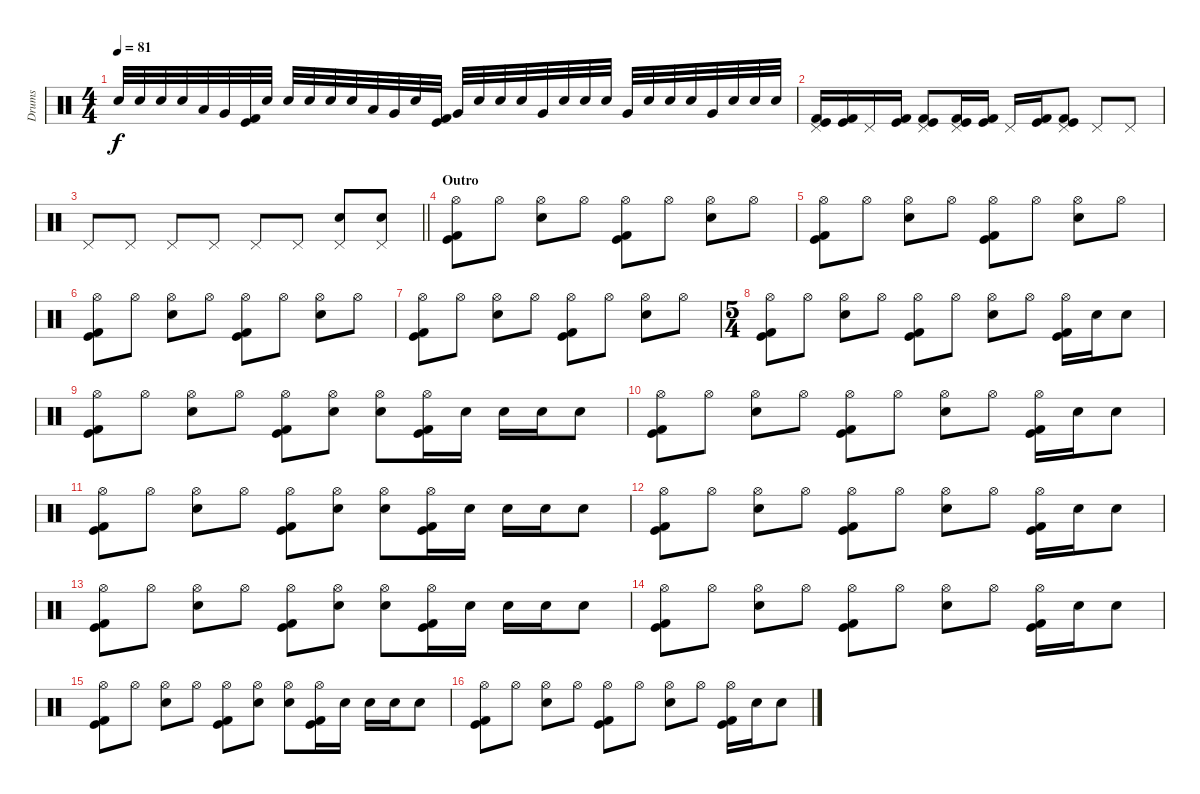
\track ("Drums" "Drums") {instrument percussion}
\staff {score}
\articulation defaults
\ts (4 4)
\tempo 81
\clef neutral
\ks c "Electric Snare (hit)".32{dy f} "Electric Snare (hit)".32 "Electric Snare (hit)".32 "Electric Snare (hit)".32 "Low Tom (hit)".32 "Very Low Tom (hit)".32
("Kick (hit)" "Kick (hit) 2").32 "Electric Snare (hit)".32 "Electric Snare (hit)".32 "Electric Snare (hit)".32 "Electric Snare (hit)".32 "Electric Snare (hit)".32 "Low Tom (hit)".32 "Very Low Tom (hit)".32 "Electric Snare (hit)".32 ("Kick (hit)" "Kick (hit) 2").32 "Very Low Tom (hit)".32 "Electric Snare (hit)".32 "Electric Snare (hit)".32 "Electric Snare (hit)".32 "Very Low Tom (hit)".32 "Electric Snare (hit)".32 "Electric Snare (hit)".32 "Electric Snare (hit)".32 "Very Low Tom (hit)".32 "Electric Snare (hit)".32 "Electric Snare (hit)".32 "Electric Snare (hit)".32 "Very Low Tom (hit)".32 "Electric Snare (hit)".32 "Electric Snare (hit)".32 "Electric Snare (hit)".32 |
("Pedal Hi-Hat (hit)" "Kick (hit)" "Kick (hit) 2").16 ("Kick (hit)" "Kick (hit) 2").16 "Pedal Hi-Hat (hit)".16 ("Kick (hit)" "Kick (hit) 2").16 ("Pedal Hi-Hat (hit)" "Kick (hit)" "Kick (hit) 2").8 ("Pedal Hi-Hat (hit)" "Kick (hit)" "Kick (hit) 2").16 ("Kick (hit)" "Kick (hit) 2").16 "Pedal Hi-Hat (hit)".16 ("Kick (hit)" "Kick (hit) 2").16 ("Pedal Hi-Hat (hit)" "Kick (hit)" "Kick (hit) 2").8 "Pedal Hi-Hat (hit)".8 "Pedal Hi-Hat (hit)".8 |
\barLineRight lightlight "Pedal Hi-Hat (hit)".8 "Pedal Hi-Hat (hit)".8 "Pedal Hi-Hat (hit)".8 "Pedal Hi-Hat (hit)".8 "Pedal Hi-Hat (hit)".8 "Pedal Hi-Hat (hit)".8
("Pedal Hi-Hat (hit)" "Electric Snare (hit)").8 ("Pedal Hi-Hat (hit)" "Electric Snare (hit)").8 |
\section ("" "Outro")
("Hi-Hat (open)" "Kick (hit)" "Kick (hit) 2").8 "Hi-Hat (open)".8 ("Hi-Hat (open)" "Electric Snare (hit)").8 "Hi-Hat (open)".8 ("Hi-Hat (open)" "Kick (hit)" "Kick (hit) 2").8 "Hi-Hat (open)".8 ("Hi-Hat (open)" "Electric Snare (hit)").8 "Hi-Hat (open)".8 |
("Hi-Hat (open)" "Kick (hit)" "Kick (hit) 2").8 "Hi-Hat (open)".8 ("Hi-Hat (open)" "Electric Snare (hit)").8 "Hi-Hat (open)".8 ("Hi-Hat (open)" "Kick (hit)" "Kick (hit) 2").8 "Hi-Hat (open)".8 ("Hi-Hat (open)" "Electric Snare (hit)").8 "Hi-Hat (open)".8 |
("Hi-Hat (open)" "Kick (hit)" "Kick (hit) 2").8 "Hi-Hat (open)".8 ("Hi-Hat (open)" "Electric Snare (hit)").8 "Hi-Hat (open)".8 ("Hi-Hat (open)" "Kick (hit)" "Kick (hit) 2").8 "Hi-Hat (open)".8 ("Hi-Hat (open)" "Electric Snare (hit)").8 "Hi-Hat (open)".8 |
("Hi-Hat (open)" "Kick (hit)" "Kick (hit) 2").8 "Hi-Hat (open)".8 ("Hi-Hat (open)" "Electric Snare (hit)").8 "Hi-Hat (open)".8 ("Hi-Hat (open)" "Kick (hit)" "Kick (hit) 2").8 "Hi-Hat (open)".8 ("Hi-Hat (open)" "Electric Snare (hit)").8 "Hi-Hat (open)".8 |
\ts (5 4)
("Hi-Hat (open)" "Kick (hit)" "Kick (hit) 2").8 "Hi-Hat (open)".8 ("Hi-Hat (open)" "Electric Snare (hit)").8 "Hi-Hat (open)".8 ("Hi-Hat (open)" "Kick (hit)" "Kick (hit) 2").8 "Hi-Hat (open)".8 ("Hi-Hat (open)" "Electric Snare (hit)").8 "Hi-Hat (open)".8 ("Hi-Hat (open)" "Kick (hit)" "Kick (hit) 2").16 "Electric Snare (hit)".16 "Electric Snare (hit)".8 |
("Hi-Hat (open)" "Kick (hit)" "Kick (hit) 2").8 "Hi-Hat (open)".8 ("Hi-Hat (open)" "Electric Snare (hit)").8 "Hi-Hat (open)".8 ("Hi-Hat (open)" "Kick (hit)" "Kick (hit) 2").8 ("Hi-Hat (open)" "Electric Snare (hit)").8 ("Hi-Hat (open)" "Electric Snare (hit)").8 ("Hi-Hat (open)" "Kick (hit)" "Kick (hit) 2").16 "Electric Snare (hit)".16 "Electric Snare (hit)".16 "Electric Snare (hit)".16 "Electric Snare (hit)".8 |
("Hi-Hat (open)" "Kick (hit)" "Kick (hit) 2").8 "Hi-Hat (open)".8 ("Hi-Hat (open)" "Electric Snare (hit)").8 "Hi-Hat (open)".8 ("Hi-Hat (open)" "Kick (hit)" "Kick (hit) 2").8 "Hi-Hat (open)".8 ("Hi-Hat (open)" "Electric Snare (hit)").8 "Hi-Hat (open)".8 ("Hi-Hat (open)" "Kick (hit)" "Kick (hit) 2").16 "Electric Snare (hit)".16 "Electric Snare (hit)".8 |
("Hi-Hat (open)" "Kick (hit)" "Kick (hit) 2").8 "Hi-Hat (open)".8 ("Hi-Hat (open)" "Electric Snare (hit)").8 "Hi-Hat (open)".8 ("Hi-Hat (open)" "Kick (hit)" "Kick (hit) 2").8 ("Hi-Hat (open)" "Electric Snare (hit)").8 ("Hi-Hat (open)" "Electric Snare (hit)").8 ("Hi-Hat (open)" "Kick (hit)" "Kick (hit) 2").16 "Electric Snare (hit)".16 "Electric Snare (hit)".16 "Electric Snare (hit)".16 "Electric Snare (hit)".8 |
("Hi-Hat (open)" "Kick (hit)" "Kick (hit) 2").8 "Hi-Hat (open)".8 ("Hi-Hat (open)" "Electric Snare (hit)").8 "Hi-Hat (open)".8 ("Hi-Hat (open)" "Kick (hit)" "Kick (hit) 2").8 "Hi-Hat (open)".8 ("Hi-Hat (open)" "Electric Snare (hit)").8 "Hi-Hat (open)".8 ("Hi-Hat (open)" "Kick (hit)" "Kick (hit) 2").16 "Electric Snare (hit)".16 "Electric Snare (hit)".8 |
("Hi-Hat (open)" "Kick (hit)" "Kick (hit) 2").8 "Hi-Hat (open)".8 ("Hi-Hat (open)" "Electric Snare (hit)").8 "Hi-Hat (open)".8 ("Hi-Hat (open)" "Kick (hit)" "Kick (hit) 2").8 ("Hi-Hat (open)" "Electric Snare (hit)").8 ("Hi-Hat (open)" "Electric Snare (hit)").8 ("Hi-Hat (open)" "Kick (hit)" "Kick (hit) 2").16 "Electric Snare (hit)".16 "Electric Snare (hit)".16 "Electric Snare (hit)".16 "Electric Snare (hit)".8 |
("Hi-Hat (open)" "Kick (hit)" "Kick (hit) 2").8 "Hi-Hat (open)".8 ("Hi-Hat (open)" "Electric Snare (hit)").8 "Hi-Hat (open)".8 ("Hi-Hat (open)" "Kick (hit)" "Kick (hit) 2").8 "Hi-Hat (open)".8 ("Hi-Hat (open)" "Electric Snare (hit)").8 "Hi-Hat (open)".8 ("Hi-Hat (open)" "Kick (hit)" "Kick (hit) 2").16 "Electric Snare (hit)".16 "Electric Snare (hit)".8 |
("Hi-Hat (open)" "Kick (hit)" "Kick (hit) 2").8 "Hi-Hat (open)".8 ("Hi-Hat (open)" "Electric Snare (hit)").8 "Hi-Hat (open)".8 ("Hi-Hat (open)" "Kick (hit)" "Kick (hit) 2").8 ("Hi-Hat (open)" "Electric Snare (hit)").8 ("Hi-Hat (open)" "Electric Snare (hit)").8 ("Hi-Hat (open)" "Kick (hit)" "Kick (hit) 2").16 "Electric Snare (hit)".16 "Electric Snare (hit)".16 "Electric Snare (hit)".16 "Electric Snare (hit)".8 |
("Hi-Hat (open)" "Kick (hit)" "Kick (hit) 2").8 "Hi-Hat (open)".8 ("Hi-Hat (open)" "Electric Snare (hit)").8 "Hi-Hat (open)".8 ("Hi-Hat (open)" "Kick (hit)" "Kick (hit) 2").8 "Hi-Hat (open)".8 ("Hi-Hat (open)" "Electric Snare (hit)").8 "Hi-Hat (open)".8 ("Hi-Hat (open)" "Kick (hit)" "Kick (hit) 2").16 "Electric Snare (hit)".16 "Electric Snare (hit)".8
